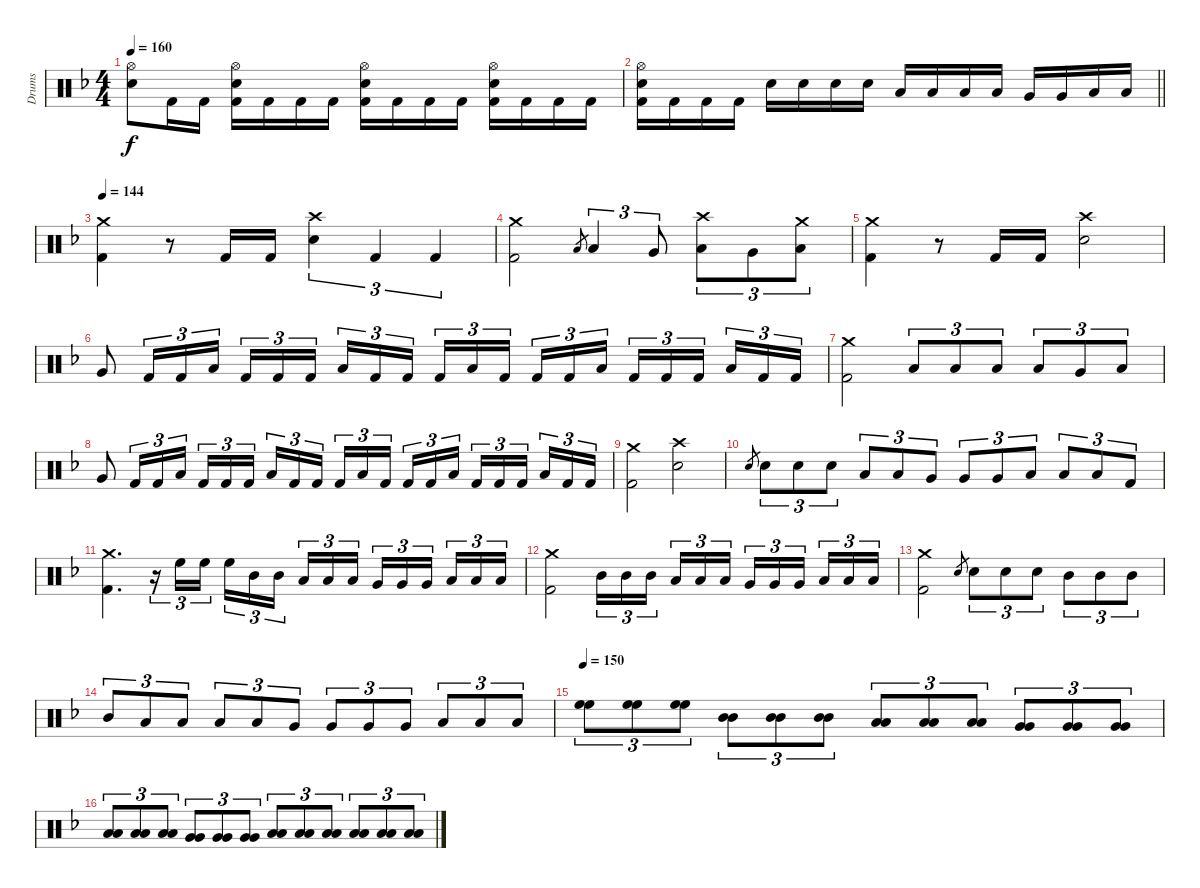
\track ("Drums" "Drums") {instrument percussion}
\staff {score}
\articulation defaults
\ts (4 4)
\tempo 160
\clef neutral
\ks f
("Hi-Hat (open)" "Electric Snare (hit)").8{dy f} "Kick (hit) 2".16 "Kick (hit) 2".16 ("Hi-Hat (open)" "Electric Snare (hit)" "Kick (hit) 2").16 "Kick (hit) 2".16 "Kick (hit) 2".16 "Kick (hit) 2".16 ("Hi-Hat (open)" "Electric Snare (hit)" "Kick (hit) 2").16 "Kick (hit) 2".16 "Kick (hit) 2".16 "Kick (hit) 2".16 ("Hi-Hat (open)" "Electric Snare (hit)" "Kick (hit) 2").16 "Kick (hit) 2".16 "Kick (hit) 2".16 "Kick (hit) 2".16 |
\barLineRight lightlight
("Hi-Hat (open)" "Electric Snare (hit)" "Kick (hit) 2").16 "Kick (hit) 2".16 "Kick (hit) 2".16 "Kick (hit) 2".16 "Electric Snare (hit)".16 "Electric Snare (hit)".16 "Electric Snare (hit)".16 "Electric Snare (hit)".16 "Low Tom (hit)".16 "Low Tom (hit)".16 "Low Tom (hit)".16 "Low Tom (hit)".16 "Very Low Tom (hit)".16 "Very Low Tom (hit)".16 "Low Floor Tom (hit)".16 "Low Floor Tom (hit)".16 |
\tempo 144
("Crash medium (hit)" "Kick (hit) 2").4 r.8 "Kick (hit) 2".16 "Kick (hit) 2".16 ("Crash high (hit)" "Electric Snare (hit)").4{tu (3 2)} "Kick (hit) 2".4{tu (3 2)} "Kick (hit) 2".4{tu (3 2)} |
("Crash medium (hit)" "Kick (hit) 2").2 "Low Tom (hit)".8{gr} "Low Tom (hit)".4{tu (3 2)} "Very Low Tom (hit)".8{tu (3 2)} ("Crash high (hit)" "Low Tom (hit)").8{tu (3 2)} "Very Low Tom (hit)".8{tu (3 2)} ("Crash medium (hit)" "Low Floor Tom (hit)").8{tu (3 2)} |
("Crash medium (hit)" "Kick (hit) 2").4 r.8 "Kick (hit) 2".16 "Kick (hit) 2".16 ("Crash high (hit)" "Electric Snare (hit)").2 |
"Very Low Tom (hit)".8 "Kick (hit) 2".16{tu (3 2)} "Kick (hit) 2".16{tu (3 2)} "Low Floor Tom (hit)".16{tu (3 2)} "Kick (hit) 2".16{tu (3 2)} "Kick (hit) 2".16{tu (3 2)} "Kick (hit) 2".16{tu (3 2) beam splitsecondary} "Low Floor Tom (hit)".16{tu (3 2)} "Kick (hit) 2".16{tu (3 2)} "Kick (hit) 2".16{tu (3 2)} "Kick (hit) 2".16{tu (3 2)} "Low Floor Tom (hit)".16{tu (3 2)} "Kick (hit) 2".16{tu (3 2) beam splitsecondary} "Kick (hit) 2".16{tu (3 2)} "Kick (hit) 2".16{tu (3 2)} "Low Floor Tom (hit)".16{tu (3 2)} "Kick (hit) 2".16{tu (3 2)} "Kick (hit) 2".16{tu (3 2)} "Kick (hit) 2".16{tu (3 2) beam splitsecondary} "Low Floor Tom (hit)".16{tu (3 2)} "Kick (hit) 2".16{tu (3 2)} "Kick (hit) 2".16{tu (3 2)} |
("Crash medium (hit)" "Kick (hit) 2").2 "Low Tom (hit)".8{tu (3 2)} "Low Tom (hit)".8{tu (3 2)} "Low Floor Tom (hit)".8{tu (3 2)} "Low Tom (hit)".8{tu (3 2)} "Very Low Tom (hit)".8{tu (3 2)} "Low Floor Tom (hit)".8{tu (3 2)} |
"Very Low Tom (hit)".8 "Kick (hit) 2".16{tu (3 2)} "Kick (hit) 2".16{tu (3 2)} "Low Floor Tom (hit)".16{tu (3 2)} "Kick (hit) 2".16{tu (3 2)} "Kick (hit) 2".16{tu (3 2)} "Kick (hit) 2".16{tu (3 2) beam splitsecondary} "Low Floor Tom (hit)".16{tu (3 2)} "Kick (hit) 2".16{tu (3 2)} "Kick (hit) 2".16{tu (3 2)} "Kick (hit) 2".16{tu (3 2)} "Low Floor Tom (hit)".16{tu (3 2)} "Kick (hit) 2".16{tu (3 2) beam splitsecondary} "Kick (hit) 2".16{tu (3 2)} "Kick (hit) 2".16{tu (3 2)} "Low Floor Tom (hit)".16{tu (3 2)} "Kick (hit) 2".16{tu (3 2)} "Kick (hit) 2".16{tu (3 2)} "Kick (hit) 2".16{tu (3 2) beam splitsecondary} "Low Floor Tom (hit)".16{tu (3 2)} "Kick (hit) 2".16{tu (3 2)} "Kick (hit) 2".16{tu (3 2)} |
("Crash medium (hit)" "Kick (hit) 2").2 ("Crash high (hit)" "Electric Snare (hit)").2 |
"Electric Snare (hit)".8{gr} "Electric Snare (hit)".8{tu (3 2)} "Electric Snare (hit)".8{tu (3 2)} "Electric Snare (hit)".8{tu (3 2)} "Low Tom (hit)".8{tu (3 2)} "Low Tom (hit)".8{tu (3 2)} "Very Low Tom (hit)".8{tu (3 2)} "Very Low Tom (hit)".8{tu (3 2)} "Very Low Tom (hit)".8{tu (3 2)} "Low Floor Tom (hit)".8{tu (3 2)} "Low Floor Tom (hit)".8{tu (3 2)} "Low Floor Tom (hit)".8{tu (3 2)} "Kick (hit) 2".8{tu (3 2)} |
("Crash medium (hit)" "Kick (hit) 2").4{d} r.16{tu (3 2)} "High Floor Tom (hit)".16{tu (3 2)} "High Floor Tom (hit)".16{tu (3 2)} "High Floor Tom (hit)".16{tu (3 2)} "Mid Tom (hit)".16{tu (3 2)} "Mid Tom (hit)".16{tu (3 2) beam splitsecondary} "Low Tom (hit)".16{tu (3 2)} "Low Tom (hit)".16{tu (3 2)} "Low Tom (hit)".16{tu (3 2)} "Very Low Tom (hit)".16{tu (3 2)} "Very Low Tom (hit)".16{tu (3 2)} "Very Low Tom (hit)".16{tu (3 2) beam splitsecondary} "Low Floor Tom (hit)".16{tu (3 2)} "Low Floor Tom (hit)".16{tu (3 2)} "Low Floor Tom (hit)".16{tu (3 2)} |
("Crash medium (hit)" "Kick (hit) 2").2 "Mid Tom (hit)".16{tu (3 2)} "Mid Tom (hit)".16{tu (3 2)} "Mid Tom (hit)".16{tu (3 2) beam splitsecondary} "Low Tom (hit)".16{tu (3 2)} "Low Tom (hit)".16{tu (3 2)} "Low Tom (hit)".16{tu (3 2)} "Very Low Tom (hit)".16{tu (3 2)} "Very Low Tom (hit)".16{tu (3 2)} "Very Low Tom (hit)".16{tu (3 2) beam splitsecondary} "Low Floor Tom (hit)".16{tu (3 2)} "Low Floor Tom (hit)".16{tu (3 2)} "Low Floor Tom (hit)".16{tu (3 2)} |
("Crash medium (hit)" "Kick (hit) 2").2 "Electric Snare (hit)".8{gr} "Electric Snare (hit)".8{tu (3 2)} "Electric Snare (hit)".8{tu (3 2)} "Electric Snare (hit)".8{tu (3 2)} "Mid Tom (hit)".8{tu (3 2)} "Mid Tom (hit)".8{tu (3 2)} "Mid Tom (hit)".8{tu (3 2)} |
"Mid Tom (hit)".8{tu (3 2)} "Low Tom (hit)".8{tu (3 2)} "Low Tom (hit)".8{tu (3 2)} "Low Tom (hit)".8{tu (3 2)} "Low Tom (hit)".8{tu (3 2)} "Very Low Tom (hit)".8{tu (3 2)} "Very Low Tom (hit)".8{tu (3 2)} "Very Low Tom (hit)".8{tu (3 2)} "Very Low Tom (hit)".8{tu (3 2)} "Low Floor Tom (hit)".8{tu (3 2)} "Low Floor Tom (hit)".8{tu (3 2)} "Low Floor Tom (hit)".8{tu (3 2)} |
\tempo 150
("High Floor Tom (hit)" "High Floor Tom (hit)").8{tu (3 2)} ("High Floor Tom (hit)" "High Floor Tom (hit)").8{tu (3 2)} ("High Floor Tom (hit)" "High Floor Tom (hit)").8{tu (3 2)} ("Mid Tom (hit)" "Mid Tom (hit)").8{tu (3 2)} ("Mid Tom (hit)" "Mid Tom (hit)").8{tu (3 2)} ("Mid Tom (hit)" "Mid Tom (hit)").8{tu (3 2)} ("Low Tom (hit)" "Low Tom (hit)").8{tu (3 2)} ("Low Tom (hit)" "Low Tom (hit)").8{tu (3 2)} ("Low Tom (hit)" "Low Tom (hit)").8{tu (3 2)} ("Very Low Tom (hit)" "Very Low Tom (hit)").8{tu (3 2)} ("Very Low Tom (hit)" "Very Low Tom (hit)").8{tu (3 2)} ("Very Low Tom (hit)" "Very Low Tom (hit)").8{tu (3 2)} |
("Low Tom (hit)" "Low Tom (hit)").8{tu (3 2)} ("Low Tom (hit)" "Low Tom (hit)").8{tu (3 2)} ("Low Tom (hit)" "Low Tom (hit)").8{tu (3 2)} ("Very Low Tom (hit)" "Very Low Tom (hit)").8{tu (3 2)} ("Very Low Tom (hit)" "Very Low Tom (hit)").8{tu (3 2)} ("Very Low Tom (hit)" "Very Low Tom (hit)").8{tu (3 2)} ("Low Floor Tom (hit)" "Low Floor Tom (hit)").8{tu (3 2)} ("Low Floor Tom (hit)" "Low Floor Tom (hit)").8{tu (3 2)} ("Low Floor Tom (hit)" "Low Floor Tom (hit)").8{tu (3 2)} ("Low Floor Tom (hit)" "Low Floor Tom (hit)").8{tu (3 2)} ("Low Floor Tom (hit)" "Low Floor Tom (hit)").8{tu (3 2)} ("Low Floor Tom (hit)" "Low Floor Tom (hit)").8{tu (3 2)}
